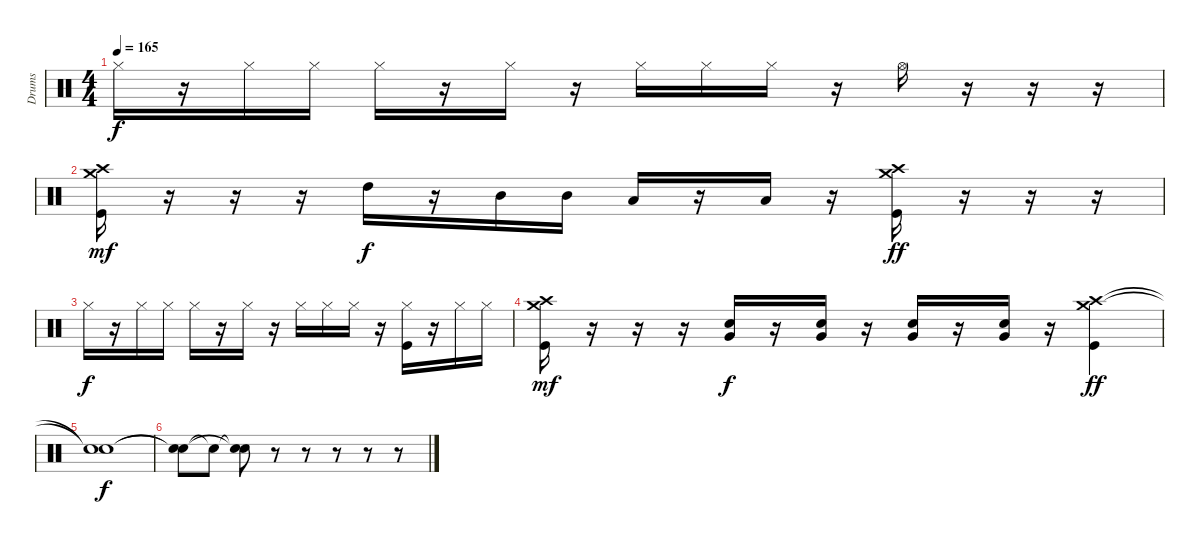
\track ("Drums" "Drums") {instrument percussion}
\staff {score}
\articulation defaults
\ts (4 4)
\tempo 165
\clef neutral
\ks c "Hi-Hat (closed)".16{dy f}
r.16 "Hi-Hat (closed)".16 "Hi-Hat (closed)".16 "Hi-Hat (closed)".16 r.16 "Hi-Hat (closed)".16 r.16 "Hi-Hat (closed)".16 "Hi-Hat (closed)".16 "Hi-Hat (closed)".16 r.16 "Hi-Hat (open)".16 r.16 r.16 r.16 |
("Crash high (hit)" "Crash medium (hit)" "Kick (hit)").16{dy mf} r.16 r.16 r.16 "High Tom (hit)".16{dy f} r.16 "Mid Tom (hit)".16 "Mid Tom (hit)".16 "Low Tom (hit)".16 r.16 "Low Tom (hit)".16 r.16 ("Crash high (hit)" "Crash medium (hit)" "Kick (hit)").16{dy ff} r.16 r.16 r.16 |
"Hi-Hat (closed)".16{dy f} r.16 "Hi-Hat (closed)".16 "Hi-Hat (closed)".16 "Hi-Hat (closed)".16 r.16 "Hi-Hat (closed)".16 r.16 "Hi-Hat (closed)".16 "Hi-Hat (closed)".16 "Hi-Hat (closed)".16 r.16 ("Hi-Hat (closed)" "Kick (hit)").16 r.16 "Hi-Hat (closed)".16 "Hi-Hat (closed)".16 |
("Crash high (hit)" "Crash medium (hit)" "Kick (hit)").16{dy mf} r.16 r.16 r.16 ("Snare (hit) 2" "Very Low Tom (hit)").16{dy f} r.16 ("Snare (hit) 2" "Very Low Tom (hit)").16 r.16 ("Snare (hit) 2" "Very Low Tom (hit)").16 r.16 ("Snare (hit) 2" "Very Low Tom (hit)").16 r.16 ("Crash high (hit)" "Crash medium (hit)" "Kick (hit)").4{dy ff} |
("Snare (hit)"{t} "Snare (hit)"{t}).1{dy f} |
("Snare (hit)"{t} "Snare (hit)"{t}).8 "Snare (hit)"{t}.8 ("Snare (hit)"{t} "Snare (hit)"{t}).8 r.8 r.8 r.8 r.8 r.8
